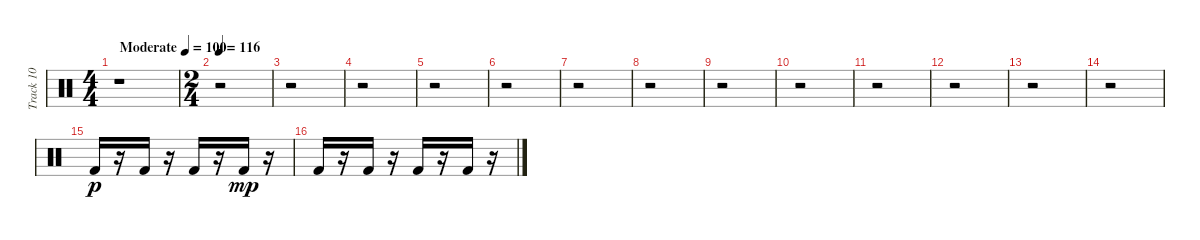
\track ("Track 10" "Track 10") {instrument percussion}
\staff {score}
\articulation defaults
\ts (4 4)
\tempo (100 "Moderate")
\clef neutral
\ks c
r.1{dy p} |
\ts (2 4)
\tempo 116
r.2 |
r.2 |
r.2 |
r.2 |
r.2 |
r.2 |
r.2 |
r.2 |
r.2 |
r.2 |
r.2 |
r.2 |
r.2 |
"Kick (hit) 2".16 r.16 "Kick (hit) 2".16 r.16 "Kick (hit) 2".16 r.16 "Kick (hit) 2".16{dy mp} r.16 |
"Kick (hit) 2".16 r.16 "Kick (hit) 2".16 r.16 "Kick (hit) 2".16 r.16 "Kick (hit) 2".16 r.16
